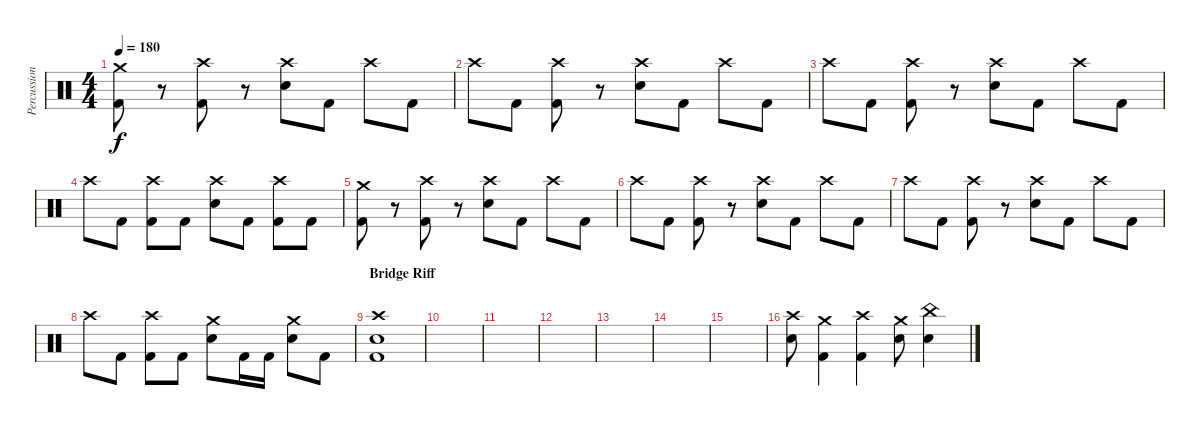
\track ("Percussion" "Percussion") {instrument percussion}
\staff {score}
\articulation defaults
\ts (4 4)
\tempo 180
\clef neutral
\ks c
("Crash medium (hit)" "Kick (hit) 2").8{dy f} r.8 ("Crash high (hit)" "Kick (hit) 2").8 r.8 ("Crash high (hit)" "Electric Snare (hit)").8 "Kick (hit) 2".8 "Crash high (hit)".8 "Kick (hit) 2".8 |
"Crash high (hit)".8 "Kick (hit) 2".8 ("Crash high (hit)" "Kick (hit) 2").8 r.8 ("Crash high (hit)" "Electric Snare (hit)").8 "Kick (hit) 2".8 "Crash high (hit)".8 "Kick (hit) 2".8 |
"Crash high (hit)".8 "Kick (hit) 2".8 ("Crash high (hit)" "Kick (hit) 2").8 r.8 ("Crash high (hit)" "Electric Snare (hit)").8 "Kick (hit) 2".8 "Crash high (hit)".8 "Kick (hit) 2".8 |
"Crash high (hit)".8 "Kick (hit) 2".8 ("Crash high (hit)" "Kick (hit) 2").8 "Kick (hit) 2".8 ("Crash high (hit)" "Electric Snare (hit)").8 "Kick (hit) 2".8 ("Crash high (hit)" "Kick (hit) 2").8 "Kick (hit) 2".8 |
("Crash medium (hit)" "Kick (hit) 2").8 r.8 ("Crash high (hit)" "Kick (hit) 2").8 r.8 ("Crash high (hit)" "Electric Snare (hit)").8 "Kick (hit) 2".8 "Crash high (hit)".8 "Kick (hit) 2".8 |
"Crash high (hit)".8 "Kick (hit) 2".8 ("Crash high (hit)" "Kick (hit) 2").8 r.8 ("Crash high (hit)" "Electric Snare (hit)").8 "Kick (hit) 2".8 "Crash high (hit)".8 "Kick (hit) 2".8 |
"Crash high (hit)".8 "Kick (hit) 2".8 ("Crash high (hit)" "Kick (hit) 2").8 r.8 ("Crash high (hit)" "Electric Snare (hit)").8 "Kick (hit) 2".8 "Crash high (hit)".8 "Kick (hit) 2".8 |
"Crash high (hit)".8 "Kick (hit) 2".8 ("Crash high (hit)" "Kick (hit) 2").8 "Kick (hit) 2".8 ("Crash medium (hit)" "Electric Snare (hit)").8 "Kick (hit) 2".16 "Kick (hit) 2".16 ("Crash medium (hit)" "Electric Snare (hit)").8 "Kick (hit) 2".8 |
\section ("" "Bridge Riff")
("Crash high (hit)" "Electric Snare (hit)" "Kick (hit) 2").1 |
|
|
|
|
|
|
("Crash high (hit)" "Electric Snare (hit)").8 ("Crash medium (hit)" "Kick (hit) 2").4 ("Crash high (hit)" "Kick (hit) 2").4 ("Crash medium (hit)" "Electric Snare (hit)").8 ("China (hit)" "Electric Snare (hit)").4
